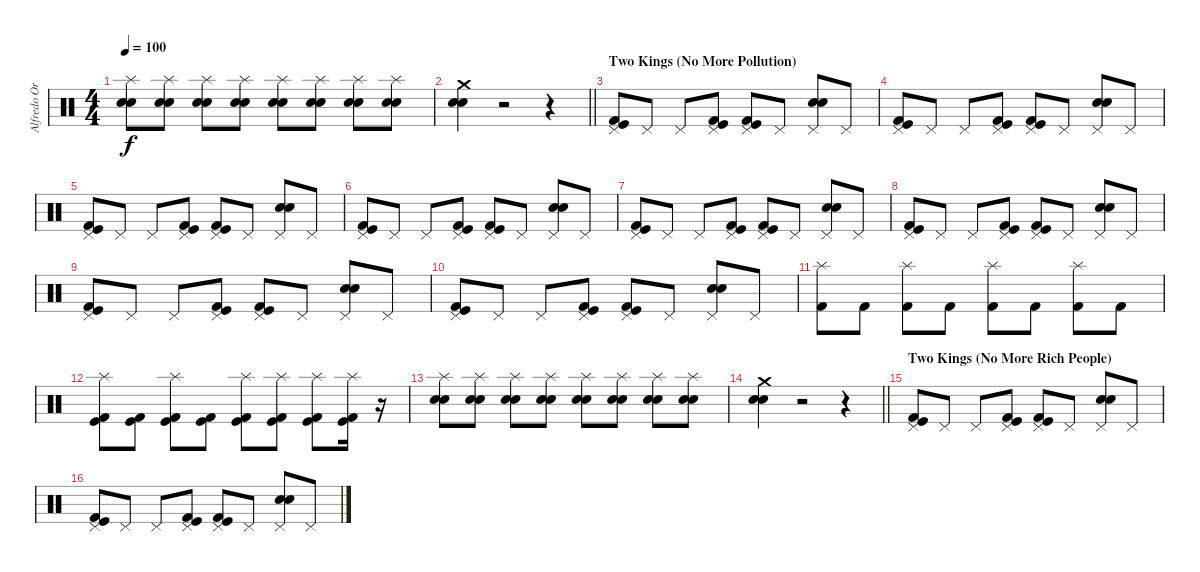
\track ("Alfredo Ortiz (Drums)" "Alfredo Or") {instrument percussion}
\staff {score}
\articulation defaults
\ts (4 4)
\tempo 100
\clef neutral
\ks c
("Snare (hit) 2" "Electric Snare (hit)" "Splash (hit)").8{dy f volume 11} ("Snare (hit) 2" "Electric Snare (hit)" "Splash (hit)").8 ("Snare (hit) 2" "Electric Snare (hit)" "Splash (hit)").8 ("Snare (hit) 2" "Electric Snare (hit)" "Splash (hit)").8 ("Snare (hit) 2" "Electric Snare (hit)" "Splash (hit)").8 ("Snare (hit) 2" "Electric Snare (hit)" "Splash (hit)").8 ("Snare (hit) 2" "Electric Snare (hit)" "Splash (hit)").8 ("Snare (hit) 2" "Electric Snare (hit)" "Splash (hit)").8 |
\barLineRight lightlight
("Snare (hit) 2" "Electric Snare (hit)" "Crash medium (hit)").4 r.2 r.4 |
\section ("" "Two Kings (No More Pollution)")
("Kick (hit) 2" "Kick (hit)" "Pedal Hi-Hat (hit)").8 "Pedal Hi-Hat (hit)".8 "Pedal Hi-Hat (hit)".8 ("Kick (hit) 2" "Kick (hit)" "Pedal Hi-Hat (hit)").8 ("Kick (hit) 2" "Kick (hit)" "Pedal Hi-Hat (hit)").8 "Pedal Hi-Hat (hit)".8 ("Snare (hit) 2" "Electric Snare (hit)" "Pedal Hi-Hat (hit)").8 "Pedal Hi-Hat (hit)".8 |
("Kick (hit) 2" "Kick (hit)" "Pedal Hi-Hat (hit)").8 "Pedal Hi-Hat (hit)".8 "Pedal Hi-Hat (hit)".8 ("Kick (hit) 2" "Kick (hit)" "Pedal Hi-Hat (hit)").8 ("Kick (hit) 2" "Kick (hit)" "Pedal Hi-Hat (hit)").8 "Pedal Hi-Hat (hit)".8 ("Snare (hit) 2" "Electric Snare (hit)" "Pedal Hi-Hat (hit)").8 "Pedal Hi-Hat (hit)".8 |
("Kick (hit) 2" "Kick (hit)" "Pedal Hi-Hat (hit)").8 "Pedal Hi-Hat (hit)".8 "Pedal Hi-Hat (hit)".8 ("Kick (hit) 2" "Kick (hit)" "Pedal Hi-Hat (hit)").8 ("Kick (hit) 2" "Kick (hit)" "Pedal Hi-Hat (hit)").8 "Pedal Hi-Hat (hit)".8 ("Snare (hit) 2" "Electric Snare (hit)" "Pedal Hi-Hat (hit)").8 "Pedal Hi-Hat (hit)".8 |
("Kick (hit) 2" "Kick (hit)" "Pedal Hi-Hat (hit)").8 "Pedal Hi-Hat (hit)".8 "Pedal Hi-Hat (hit)".8 ("Kick (hit) 2" "Kick (hit)" "Pedal Hi-Hat (hit)").8 ("Kick (hit) 2" "Kick (hit)" "Pedal Hi-Hat (hit)").8 "Pedal Hi-Hat (hit)".8 ("Snare (hit) 2" "Electric Snare (hit)" "Pedal Hi-Hat (hit)").8 "Pedal Hi-Hat (hit)".8 |
("Kick (hit) 2" "Kick (hit)" "Pedal Hi-Hat (hit)").8 "Pedal Hi-Hat (hit)".8 "Pedal Hi-Hat (hit)".8 ("Kick (hit) 2" "Kick (hit)" "Pedal Hi-Hat (hit)").8 ("Kick (hit) 2" "Kick (hit)" "Pedal Hi-Hat (hit)").8 "Pedal Hi-Hat (hit)".8 ("Snare (hit) 2" "Electric Snare (hit)" "Pedal Hi-Hat (hit)").8 "Pedal Hi-Hat (hit)".8 |
("Kick (hit) 2" "Kick (hit)" "Pedal Hi-Hat (hit)").8 "Pedal Hi-Hat (hit)".8 "Pedal Hi-Hat (hit)".8 ("Kick (hit) 2" "Kick (hit)" "Pedal Hi-Hat (hit)").8 ("Kick (hit) 2" "Kick (hit)" "Pedal Hi-Hat (hit)").8 "Pedal Hi-Hat (hit)".8 ("Snare (hit) 2" "Electric Snare (hit)" "Pedal Hi-Hat (hit)").8 "Pedal Hi-Hat (hit)".8 |
("Kick (hit) 2" "Kick (hit)" "Pedal Hi-Hat (hit)").8 "Pedal Hi-Hat (hit)".8 "Pedal Hi-Hat (hit)".8 ("Kick (hit) 2" "Kick (hit)" "Pedal Hi-Hat (hit)").8 ("Kick (hit) 2" "Kick (hit)" "Pedal Hi-Hat (hit)").8 "Pedal Hi-Hat (hit)".8 ("Snare (hit) 2" "Electric Snare (hit)" "Pedal Hi-Hat (hit)").8 "Pedal Hi-Hat (hit)".8 |
("Kick (hit) 2" "Kick (hit)" "Pedal Hi-Hat (hit)").8 "Pedal Hi-Hat (hit)".8 "Pedal Hi-Hat (hit)".8 ("Kick (hit) 2" "Kick (hit)" "Pedal Hi-Hat (hit)").8 ("Kick (hit) 2" "Kick (hit)" "Pedal Hi-Hat (hit)").8 "Pedal Hi-Hat (hit)".8 ("Snare (hit) 2" "Electric Snare (hit)" "Pedal Hi-Hat (hit)").8 "Pedal Hi-Hat (hit)".8 |
("Kick (hit) 2" "Splash (hit)").8 "Kick (hit) 2".8 ("Kick (hit) 2" "Splash (hit)").8 "Kick (hit) 2".8 ("Kick (hit) 2" "Splash (hit)").8 "Kick (hit) 2".8 ("Kick (hit) 2" "Splash (hit)").8 "Kick (hit) 2".8 |
("Kick (hit) 2" "Kick (hit)" "Splash (hit)").8 ("Kick (hit) 2" "Kick (hit)").8 ("Kick (hit) 2" "Kick (hit)" "Splash (hit)").8 ("Kick (hit) 2" "Kick (hit)").8 ("Kick (hit) 2" "Kick (hit)" "Splash (hit)").8 ("Kick (hit) 2" "Kick (hit)" "Splash (hit)").8 ("Kick (hit) 2" "Kick (hit)" "Splash (hit)").8 ("Kick (hit) 2" "Kick (hit)" "Splash (hit)").16 r.16{volume 8} |
("Snare (hit) 2" "Electric Snare (hit)" "Splash (hit)").8{volume 11} ("Snare (hit) 2" "Electric Snare (hit)" "Splash (hit)").8 ("Snare (hit) 2" "Electric Snare (hit)" "Splash (hit)").8 ("Snare (hit) 2" "Electric Snare (hit)" "Splash (hit)").8 ("Snare (hit) 2" "Electric Snare (hit)" "Splash (hit)").8 ("Snare (hit) 2" "Electric Snare (hit)" "Splash (hit)").8 ("Snare (hit) 2" "Electric Snare (hit)" "Splash (hit)").8 ("Snare (hit) 2" "Electric Snare (hit)" "Splash (hit)").8 |
\barLineRight lightlight
("Snare (hit) 2" "Electric Snare (hit)" "Crash medium (hit)").4 r.2 r.4 |
\section ("" "Two Kings (No More Rich People)")
("Kick (hit) 2" "Kick (hit)" "Pedal Hi-Hat (hit)").8 "Pedal Hi-Hat (hit)".8 "Pedal Hi-Hat (hit)".8 ("Kick (hit) 2" "Kick (hit)" "Pedal Hi-Hat (hit)").8 ("Kick (hit) 2" "Kick (hit)" "Pedal Hi-Hat (hit)").8 "Pedal Hi-Hat (hit)".8 ("Snare (hit) 2" "Electric Snare (hit)" "Pedal Hi-Hat (hit)").8 "Pedal Hi-Hat (hit)".8 |
("Kick (hit) 2" "Kick (hit)" "Pedal Hi-Hat (hit)").8 "Pedal Hi-Hat (hit)".8 "Pedal Hi-Hat (hit)".8 ("Kick (hit) 2" "Kick (hit)" "Pedal Hi-Hat (hit)").8 ("Kick (hit) 2" "Kick (hit)" "Pedal Hi-Hat (hit)").8 "Pedal Hi-Hat (hit)".8 ("Snare (hit) 2" "Electric Snare (hit)" "Pedal Hi-Hat (hit)").8 "Pedal Hi-Hat (hit)".8
